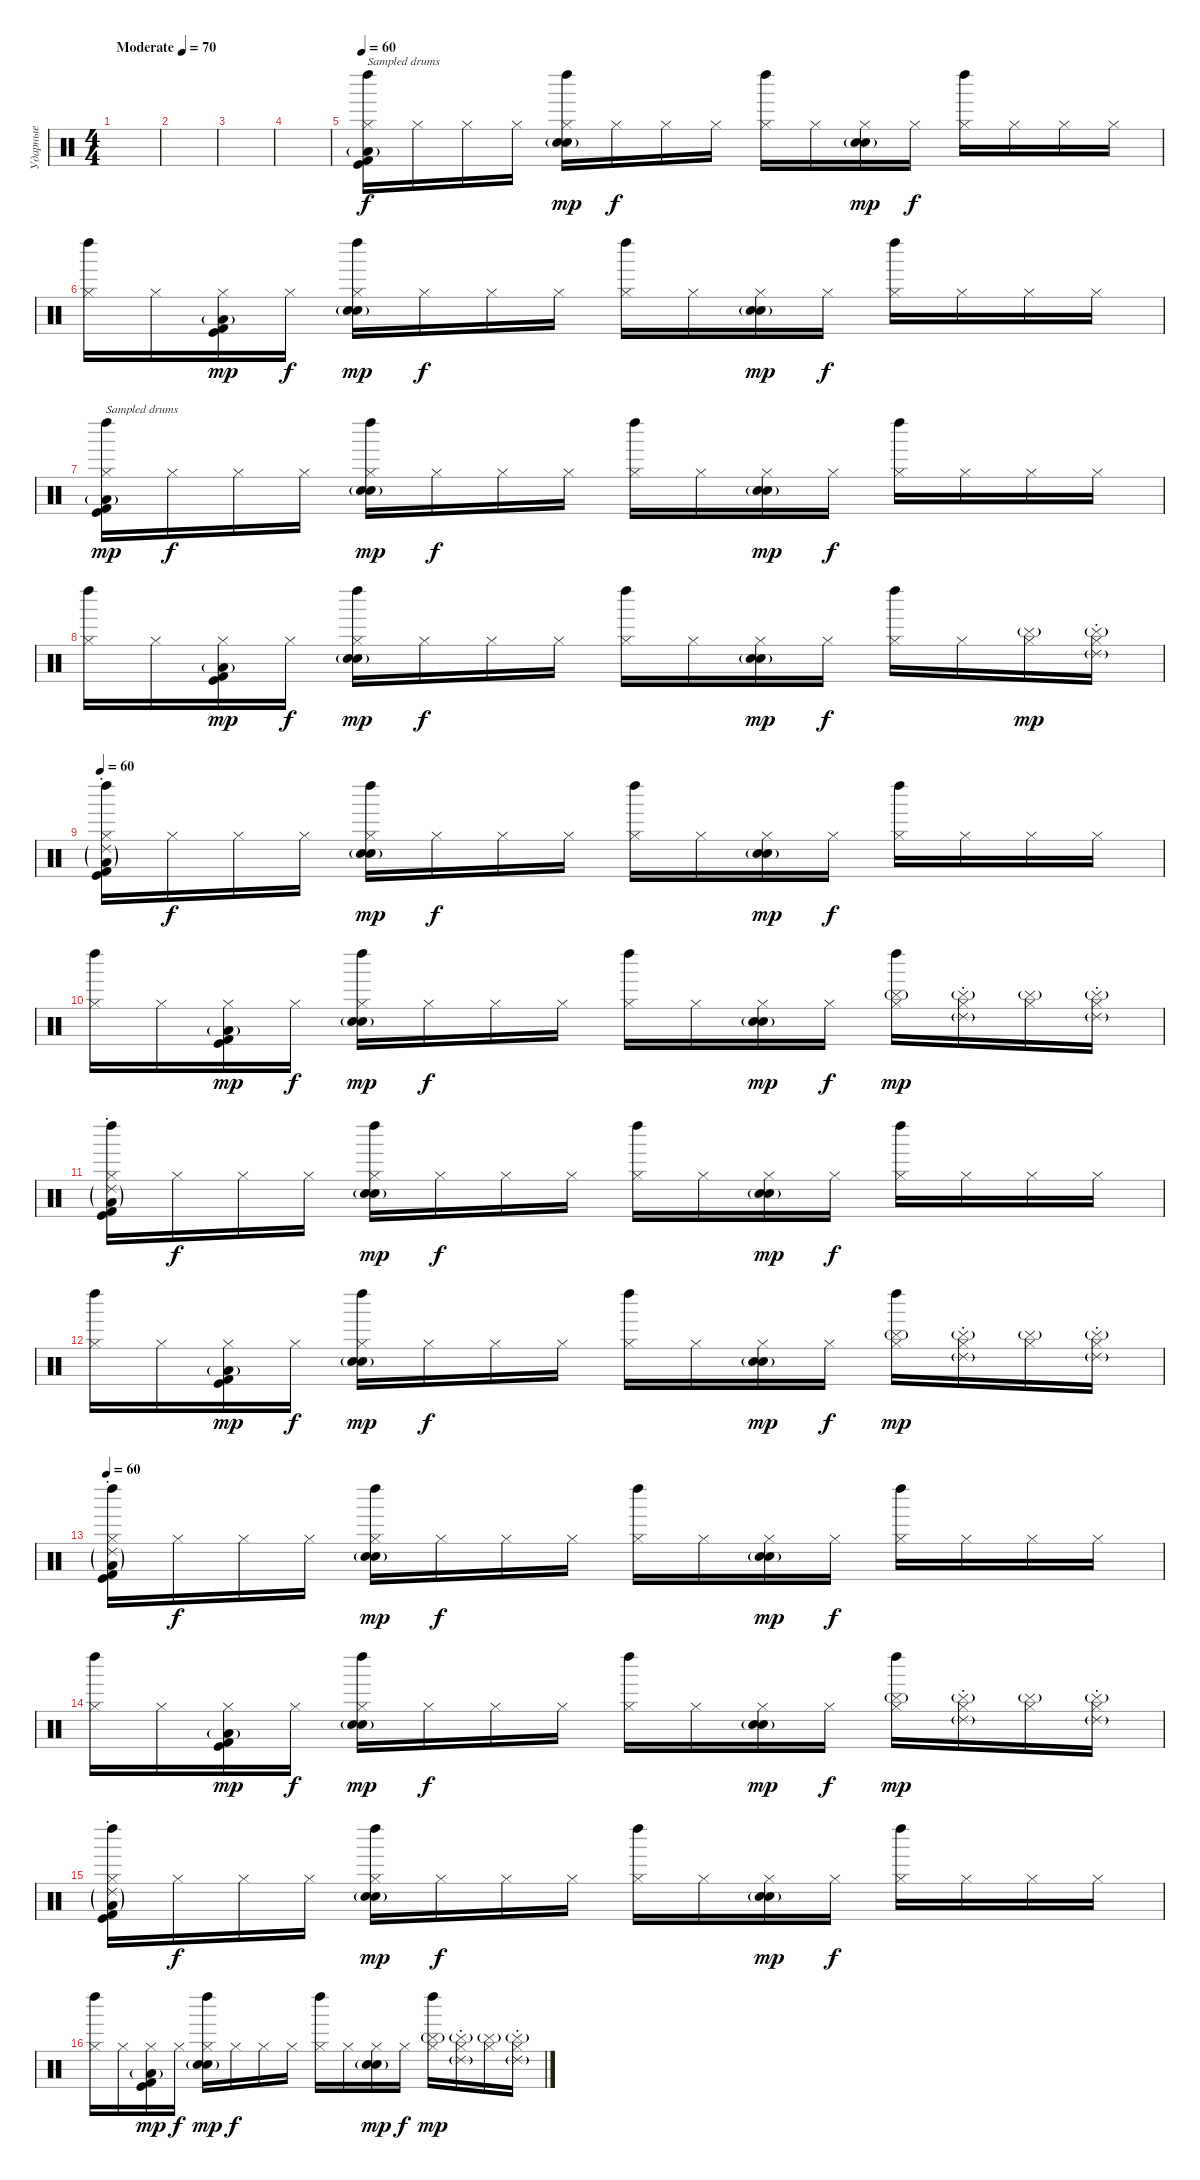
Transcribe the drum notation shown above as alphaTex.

\track ("Ударные" "Ударные") {instrument percussion}
\staff {score}
\articulation defaults
\ts (4 4)
\tempo (70 "Moderate")
\tempo 60
\tempo (70 "Moderate")
\clef neutral
\ks c
|
|
|
|
\tempo 60
("Left Maraca (hit)" "Hi-Hat (closed)" "Kick (hit)" "Kick (hit) 2" "Low Floor Tom (hit)"{g}).16{txt "Sampled drums" volume 16} "Hi-Hat (closed)".16{dy f} "Hi-Hat (closed)".16 "Hi-Hat (closed)".16 ("Left Maraca (hit)" "Hi-Hat (closed)" "Electric Snare (hit)"{g} "Hand Clap (hit)").16{dy mp} "Hi-Hat (closed)".16{dy f} "Hi-Hat (closed)".16 "Hi-Hat (closed)".16 ("Left Maraca (hit)" "Hi-Hat (closed)").16 "Hi-Hat (closed)".16 ("Hi-Hat (closed)" "Electric Snare (hit)"{g} "Hand Clap (hit)").16{dy mp} "Hi-Hat (closed)".16{dy f} ("Left Maraca (hit)" "Hi-Hat (closed)").16 "Hi-Hat (closed)".16 "Hi-Hat (closed)".16 "Hi-Hat (closed)".16 |
("Left Maraca (hit)" "Hi-Hat (closed)").16 "Hi-Hat (closed)".16 ("Hi-Hat (closed)" "Kick (hit)" "Kick (hit) 2" "Low Floor Tom (hit)"{g}).16{dy mp} "Hi-Hat (closed)".16{dy f} ("Left Maraca (hit)" "Hi-Hat (closed)" "Electric Snare (hit)"{g} "Hand Clap (hit)").16{dy mp} "Hi-Hat (closed)".16{dy f} "Hi-Hat (closed)".16 "Hi-Hat (closed)".16 ("Left Maraca (hit)" "Hi-Hat (closed)").16 "Hi-Hat (closed)".16 ("Hi-Hat (closed)" "Electric Snare (hit)"{g} "Hand Clap (hit)").16{dy mp} "Hi-Hat (closed)".16{dy f} ("Left Maraca (hit)" "Hi-Hat (closed)").16 "Hi-Hat (closed)".16 "Hi-Hat (closed)".16 "Hi-Hat (closed)".16 |
("Left Maraca (hit)" "Hi-Hat (closed)" "Kick (hit)" "Kick (hit) 2" "Low Floor Tom (hit)"{g}).16{txt "Sampled drums" dy mp} "Hi-Hat (closed)".16{dy f} "Hi-Hat (closed)".16 "Hi-Hat (closed)".16 ("Left Maraca (hit)" "Hi-Hat (closed)" "Electric Snare (hit)"{g} "Hand Clap (hit)").16{dy mp} "Hi-Hat (closed)".16{dy f} "Hi-Hat (closed)".16 "Hi-Hat (closed)".16 ("Left Maraca (hit)" "Hi-Hat (closed)").16 "Hi-Hat (closed)".16 ("Hi-Hat (closed)" "Electric Snare (hit)"{g} "Hand Clap (hit)").16{dy mp} "Hi-Hat (closed)".16{dy f} ("Left Maraca (hit)" "Hi-Hat (closed)").16 "Hi-Hat (closed)".16 "Hi-Hat (closed)".16 "Hi-Hat (closed)".16 |
("Left Maraca (hit)" "Hi-Hat (closed)").16 "Hi-Hat (closed)".16 ("Hi-Hat (closed)" "Kick (hit)" "Kick (hit) 2" "Low Floor Tom (hit)"{g}).16{dy mp} "Hi-Hat (closed)".16{dy f} ("Left Maraca (hit)" "Hi-Hat (closed)" "Electric Snare (hit)"{g} "Hand Clap (hit)").16{dy mp} "Hi-Hat (closed)".16{dy f} "Hi-Hat (closed)".16 "Hi-Hat (closed)".16 ("Left Maraca (hit)" "Hi-Hat (closed)").16 "Hi-Hat (closed)".16 ("Hi-Hat (closed)" "Electric Snare (hit)"{g} "Hand Clap (hit)").16{dy mp} "Hi-Hat (closed)".16{dy f} ("Left Maraca (hit)" "Hi-Hat (closed)").16 "Hi-Hat (closed)".16 ("Cymbal (hit)"{g} "Hi-Hat (closed)").16{dy mp} ("Cymbal (hit)"{g} "Ride (choke) 2"{g} "Hi-Hat (closed)").16 |
\tempo 60
("Left Maraca (hit)" "Ride (choke) 2"{g} "Hi-Hat (closed)" "Kick (hit)" "Kick (hit) 2" "Low Floor Tom (hit)"{g}).16 "Hi-Hat (closed)".16{dy f} "Hi-Hat (closed)".16 "Hi-Hat (closed)".16 ("Left Maraca (hit)" "Hi-Hat (closed)" "Electric Snare (hit)"{g} "Hand Clap (hit)").16{dy mp} "Hi-Hat (closed)".16{dy f} "Hi-Hat (closed)".16 "Hi-Hat (closed)".16 ("Left Maraca (hit)" "Hi-Hat (closed)").16 "Hi-Hat (closed)".16 ("Hi-Hat (closed)" "Electric Snare (hit)"{g} "Hand Clap (hit)").16{dy mp} "Hi-Hat (closed)".16{dy f} ("Left Maraca (hit)" "Hi-Hat (closed)").16 "Hi-Hat (closed)".16 "Hi-Hat (closed)".16 "Hi-Hat (closed)".16 |
("Left Maraca (hit)" "Hi-Hat (closed)").16 "Hi-Hat (closed)".16 ("Hi-Hat (closed)" "Kick (hit)" "Kick (hit) 2" "Low Floor Tom (hit)"{g}).16{dy mp} "Hi-Hat (closed)".16{dy f} ("Left Maraca (hit)" "Hi-Hat (closed)" "Electric Snare (hit)"{g} "Hand Clap (hit)").16{dy mp} "Hi-Hat (closed)".16{dy f} "Hi-Hat (closed)".16 "Hi-Hat (closed)".16 ("Left Maraca (hit)" "Hi-Hat (closed)").16 "Hi-Hat (closed)".16 ("Hi-Hat (closed)" "Electric Snare (hit)"{g} "Hand Clap (hit)").16{dy mp} "Hi-Hat (closed)".16{dy f} ("Left Maraca (hit)" "Cymbal (hit)"{g} "Hi-Hat (closed)").16{dy mp} ("Cymbal (hit)"{g} "Ride (choke) 2"{g} "Hi-Hat (closed)").16 ("Cymbal (hit)"{g} "Hi-Hat (closed)").16 ("Cymbal (hit)"{g} "Ride (choke) 2"{g} "Hi-Hat (closed)").16 |
("Left Maraca (hit)" "Ride (choke) 2"{g} "Hi-Hat (closed)" "Kick (hit)" "Kick (hit) 2" "Low Floor Tom (hit)"{g}).16 "Hi-Hat (closed)".16{dy f} "Hi-Hat (closed)".16 "Hi-Hat (closed)".16 ("Left Maraca (hit)" "Hi-Hat (closed)" "Electric Snare (hit)"{g} "Hand Clap (hit)").16{dy mp} "Hi-Hat (closed)".16{dy f} "Hi-Hat (closed)".16 "Hi-Hat (closed)".16 ("Left Maraca (hit)" "Hi-Hat (closed)").16 "Hi-Hat (closed)".16 ("Hi-Hat (closed)" "Electric Snare (hit)"{g} "Hand Clap (hit)").16{dy mp} "Hi-Hat (closed)".16{dy f} ("Left Maraca (hit)" "Hi-Hat (closed)").16 "Hi-Hat (closed)".16 "Hi-Hat (closed)".16 "Hi-Hat (closed)".16 |
("Left Maraca (hit)" "Hi-Hat (closed)").16 "Hi-Hat (closed)".16 ("Hi-Hat (closed)" "Kick (hit)" "Kick (hit) 2" "Low Floor Tom (hit)"{g}).16{dy mp} "Hi-Hat (closed)".16{dy f} ("Left Maraca (hit)" "Hi-Hat (closed)" "Electric Snare (hit)"{g} "Hand Clap (hit)").16{dy mp} "Hi-Hat (closed)".16{dy f} "Hi-Hat (closed)".16 "Hi-Hat (closed)".16 ("Left Maraca (hit)" "Hi-Hat (closed)").16 "Hi-Hat (closed)".16 ("Hi-Hat (closed)" "Electric Snare (hit)"{g} "Hand Clap (hit)").16{dy mp} "Hi-Hat (closed)".16{dy f} ("Left Maraca (hit)" "Cymbal (hit)"{g} "Hi-Hat (closed)").16{dy mp} ("Cymbal (hit)"{g} "Ride (choke) 2"{g} "Hi-Hat (closed)").16 ("Cymbal (hit)"{g} "Hi-Hat (closed)").16 ("Cymbal (hit)"{g} "Ride (choke) 2"{g} "Hi-Hat (closed)").16 |
\tempo 60
("Left Maraca (hit)" "Ride (choke) 2"{g} "Hi-Hat (closed)" "Kick (hit)" "Kick (hit) 2" "Low Floor Tom (hit)"{g}).16 "Hi-Hat (closed)".16{dy f} "Hi-Hat (closed)".16 "Hi-Hat (closed)".16 ("Left Maraca (hit)" "Hi-Hat (closed)" "Electric Snare (hit)"{g} "Hand Clap (hit)").16{dy mp} "Hi-Hat (closed)".16{dy f} "Hi-Hat (closed)".16 "Hi-Hat (closed)".16 ("Left Maraca (hit)" "Hi-Hat (closed)").16 "Hi-Hat (closed)".16 ("Hi-Hat (closed)" "Electric Snare (hit)"{g} "Hand Clap (hit)").16{dy mp} "Hi-Hat (closed)".16{dy f} ("Left Maraca (hit)" "Hi-Hat (closed)").16 "Hi-Hat (closed)".16 "Hi-Hat (closed)".16 "Hi-Hat (closed)".16 |
("Left Maraca (hit)" "Hi-Hat (closed)").16 "Hi-Hat (closed)".16 ("Hi-Hat (closed)" "Kick (hit)" "Kick (hit) 2" "Low Floor Tom (hit)"{g}).16{dy mp} "Hi-Hat (closed)".16{dy f} ("Left Maraca (hit)" "Hi-Hat (closed)" "Electric Snare (hit)"{g} "Hand Clap (hit)").16{dy mp} "Hi-Hat (closed)".16{dy f} "Hi-Hat (closed)".16 "Hi-Hat (closed)".16 ("Left Maraca (hit)" "Hi-Hat (closed)").16 "Hi-Hat (closed)".16 ("Hi-Hat (closed)" "Electric Snare (hit)"{g} "Hand Clap (hit)").16{dy mp} "Hi-Hat (closed)".16{dy f} ("Left Maraca (hit)" "Cymbal (hit)"{g} "Hi-Hat (closed)").16{dy mp} ("Cymbal (hit)"{g} "Ride (choke) 2"{g} "Hi-Hat (closed)").16 ("Cymbal (hit)"{g} "Hi-Hat (closed)").16 ("Cymbal (hit)"{g} "Ride (choke) 2"{g} "Hi-Hat (closed)").16 |
("Left Maraca (hit)" "Ride (choke) 2"{g} "Hi-Hat (closed)" "Kick (hit)" "Kick (hit) 2" "Low Floor Tom (hit)"{g}).16 "Hi-Hat (closed)".16{dy f} "Hi-Hat (closed)".16 "Hi-Hat (closed)".16 ("Left Maraca (hit)" "Hi-Hat (closed)" "Electric Snare (hit)"{g} "Hand Clap (hit)").16{dy mp} "Hi-Hat (closed)".16{dy f} "Hi-Hat (closed)".16 "Hi-Hat (closed)".16 ("Left Maraca (hit)" "Hi-Hat (closed)").16 "Hi-Hat (closed)".16 ("Hi-Hat (closed)" "Electric Snare (hit)"{g} "Hand Clap (hit)").16{dy mp} "Hi-Hat (closed)".16{dy f} ("Left Maraca (hit)" "Hi-Hat (closed)").16 "Hi-Hat (closed)".16 "Hi-Hat (closed)".16 "Hi-Hat (closed)".16 |
("Left Maraca (hit)" "Hi-Hat (closed)").16 "Hi-Hat (closed)".16 ("Hi-Hat (closed)" "Kick (hit)" "Kick (hit) 2" "Low Floor Tom (hit)"{g}).16{dy mp} "Hi-Hat (closed)".16{dy f} ("Left Maraca (hit)" "Hi-Hat (closed)" "Electric Snare (hit)"{g} "Hand Clap (hit)").16{dy mp} "Hi-Hat (closed)".16{dy f} "Hi-Hat (closed)".16 "Hi-Hat (closed)".16 ("Left Maraca (hit)" "Hi-Hat (closed)").16 "Hi-Hat (closed)".16 ("Hi-Hat (closed)" "Electric Snare (hit)"{g} "Hand Clap (hit)").16{dy mp} "Hi-Hat (closed)".16{dy f} ("Left Maraca (hit)" "Cymbal (hit)"{g} "Hi-Hat (closed)").16{dy mp} ("Cymbal (hit)"{g} "Ride (choke) 2"{g} "Hi-Hat (closed)").16 ("Cymbal (hit)"{g} "Hi-Hat (closed)").16 ("Cymbal (hit)"{g} "Ride (choke) 2"{g} "Hi-Hat (closed)").16
